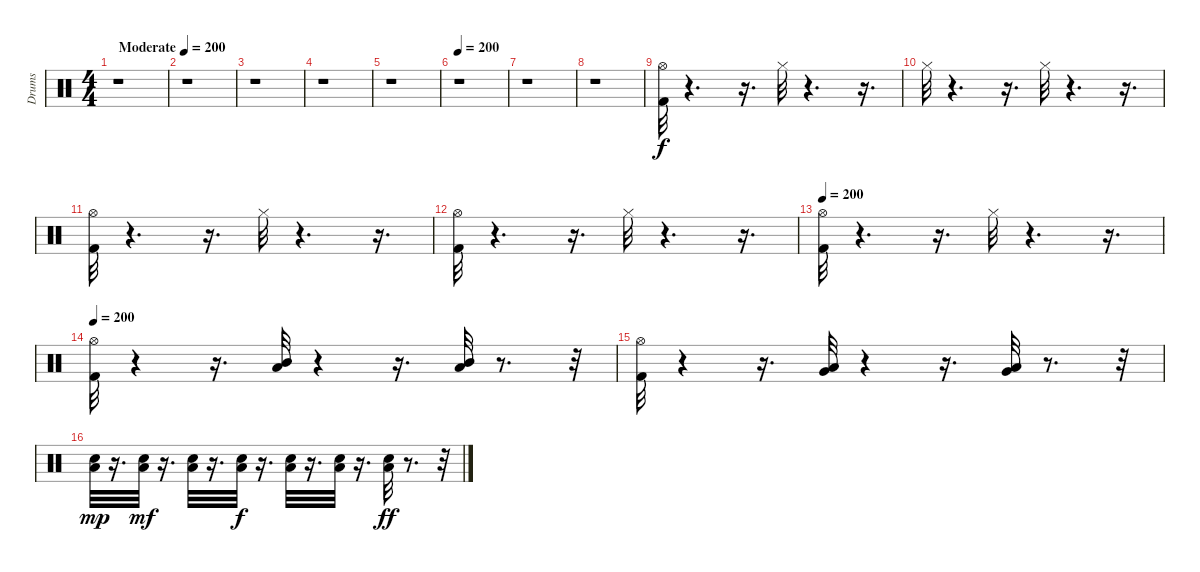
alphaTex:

\track ("Drums" "Drums") {instrument percussion}
\staff {score}
\articulation defaults
\ts (4 4)
\tempo (200 "Moderate")
\clef neutral
\ks c
r.1{dy f} |
r.1 |
r.1 |
r.1 |
r.1 |
\tempo 200
r.1 |
r.1 |
r.1 |
("Hi-Hat (open)" "Kick (hit) 2").32 r.4{d} r.16{d} "Hi-Hat (closed)".32 r.4{d} r.16{d} |
"Hi-Hat (closed)".32 r.4{d} r.16{d} "Hi-Hat (closed)".32 r.4{d} r.16{d} |
("Hi-Hat (open)" "Kick (hit) 2").32 r.4{d} r.16{d} "Hi-Hat (closed)".32 r.4{d} r.16{d} |
("Hi-Hat (open)" "Kick (hit) 2").32 r.4{d} r.16{d} "Hi-Hat (closed)".32 r.4{d} r.16{d} |
\tempo 200
("Hi-Hat (open)" "Kick (hit) 2").32 r.4{d} r.16{d} "Hi-Hat (closed)".32 r.4{d} r.16{d} |
\tempo 200
("Hi-Hat (open)" "Kick (hit) 2").32 r.4 r.16{d} ("Mid Tom (hit)" "Low Tom (hit)").32 r.4 r.16{d} ("Mid Tom (hit)" "Low Tom (hit)").32 r.8{d} r.32 |
("Hi-Hat (open)" "Kick (hit) 2").32 r.4 r.16{d} ("Very Low Tom (hit)" "Low Tom (hit)").32 r.4 r.16{d} ("Very Low Tom (hit)" "Low Tom (hit)").32 r.8{d} r.32 |
("Electric Snare (hit)" "Low Floor Tom (hit)").32{dy mp} r.16{d} ("Electric Snare (hit)" "Low Floor Tom (hit)").32{dy mf} r.16{d} ("Electric Snare (hit)" "Low Floor Tom (hit)").32 r.16{d} ("Electric Snare (hit)" "Low Floor Tom (hit)").32{dy f} r.16{d} ("Electric Snare (hit)" "Low Floor Tom (hit)").32 r.16{d} ("Electric Snare (hit)" "Low Floor Tom (hit)").32 r.16{d} ("Electric Snare (hit)" "Low Floor Tom (hit)").32{dy ff} r.8{d} r.32
